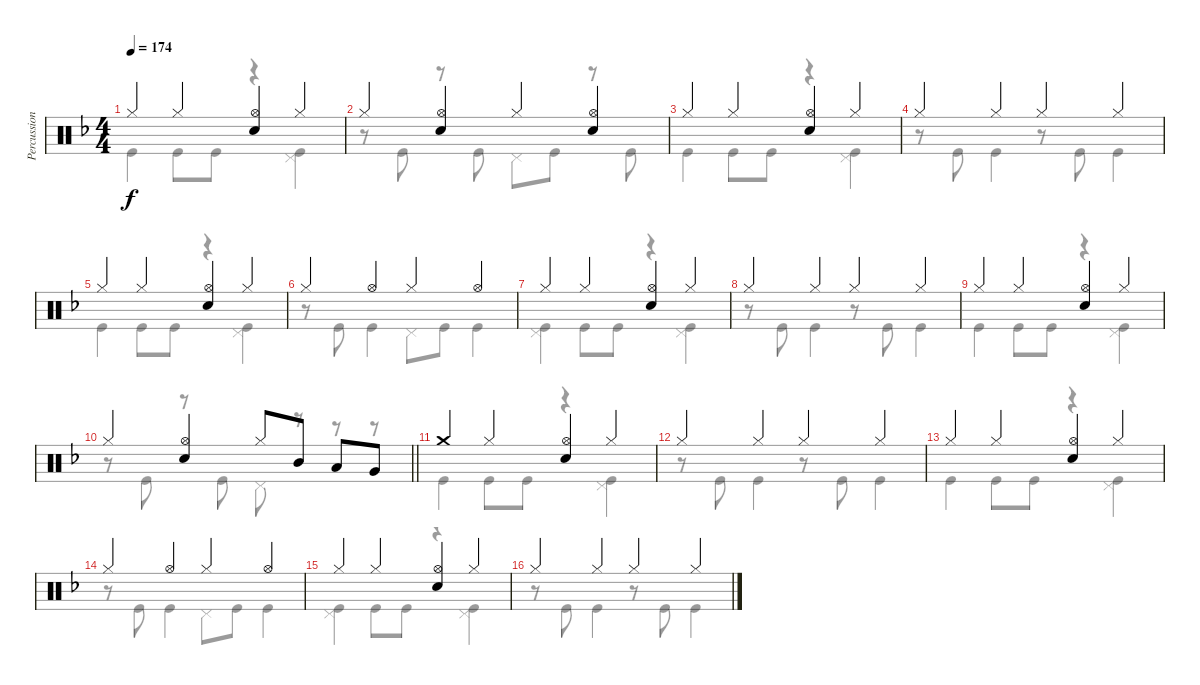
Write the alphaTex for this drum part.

\track ("Percussion" "Percussion") {instrument percussion}
\staff {score}
\articulation defaults
\voice
\ts (4 4)
\tempo 174
\clef neutral
\ks dminor "Hi-Hat (closed)".4{dy f} "Hi-Hat (closed)".4
("Hi-Hat (open)" "Electric Snare (hit)").4 "Hi-Hat (closed)".4 |
"Hi-Hat (closed)".4 ("Hi-Hat (open)" "Electric Snare (hit)").4 "Hi-Hat (closed)".4 ("Hi-Hat (open)" "Electric Snare (hit)").4 |
"Hi-Hat (closed)".4 "Hi-Hat (closed)".4 ("Hi-Hat (open)" "Electric Snare (hit)").4 "Hi-Hat (closed)".4 |
"Hi-Hat (closed)".4 "Hi-Hat (closed)".4 "Hi-Hat (closed)".4 "Hi-Hat (closed)".4 |
"Hi-Hat (closed)".4 "Hi-Hat (closed)".4 ("Hi-Hat (open)" "Electric Snare (hit)").4 "Hi-Hat (closed)".4 |
"Hi-Hat (closed)".4 "Hi-Hat (open)".4 "Hi-Hat (closed)".4 "Hi-Hat (open)".4 |
"Hi-Hat (closed)".4 "Hi-Hat (closed)".4 ("Hi-Hat (open)" "Electric Snare (hit)").4 "Hi-Hat (closed)".4 |
"Hi-Hat (closed)".4 "Hi-Hat (closed)".4 "Hi-Hat (closed)".4 "Hi-Hat (closed)".4 |
"Hi-Hat (closed)".4 "Hi-Hat (closed)".4 ("Hi-Hat (open)" "Electric Snare (hit)").4 "Hi-Hat (closed)".4 |
\barLineRight lightlight "Hi-Hat (closed)".4
("Hi-Hat (open)" "Electric Snare (hit)").4 "Hi-Hat (closed)".8 "Mid Tom (hit)".8 "Low Tom (hit)".8 "Very Low Tom (hit)".8 |
\section ("" "")
"Crash medium (hit)".4 "Hi-Hat (closed)".4 ("Hi-Hat (open)" "Electric Snare (hit)").4 "Hi-Hat (closed)".4 |
"Hi-Hat (closed)".4 "Hi-Hat (closed)".4 "Hi-Hat (closed)".4 "Hi-Hat (closed)".4 |
"Hi-Hat (closed)".4 "Hi-Hat (closed)".4 ("Hi-Hat (open)" "Electric Snare (hit)").4 "Hi-Hat (closed)".4 |
"Hi-Hat (closed)".4 "Hi-Hat (open)".4 "Hi-Hat (closed)".4 "Hi-Hat (open)".4 |
"Hi-Hat (closed)".4 "Hi-Hat (closed)".4 ("Hi-Hat (open)" "Electric Snare (hit)").4 "Hi-Hat (closed)".4 |
"Hi-Hat (closed)".4 "Hi-Hat (closed)".4 "Hi-Hat (closed)".4 "Hi-Hat (closed)".4
\voice
\clef neutral
\ottava regular
\simile none
\ks dminor "Kick (hit)".4{dy f} "Kick (hit)".8 "Kick (hit)".8
r.4 ("Pedal Hi-Hat (hit)" "Kick (hit)").4 |
r.8 "Kick (hit)".8 r.8 "Kick (hit)".8 "Pedal Hi-Hat (hit)".8 "Kick (hit)".8 r.8 "Kick (hit)".8 |
"Kick (hit)".4 "Kick (hit)".8 "Kick (hit)".8 r.4 ("Pedal Hi-Hat (hit)" "Kick (hit)").4 |
r.8 "Kick (hit)".8 "Kick (hit)".4 r.8 "Kick (hit)".8 "Kick (hit)".4 |
"Kick (hit)".4 "Kick (hit)".8 "Kick (hit)".8 r.4 ("Pedal Hi-Hat (hit)" "Kick (hit)").4 |
r.8 "Kick (hit)".8 "Kick (hit)".4 "Pedal Hi-Hat (hit)".8 "Kick (hit)".8 "Kick (hit)".4 |
("Pedal Hi-Hat (hit)" "Kick (hit)").4 "Kick (hit)".8 "Kick (hit)".8 r.4 ("Pedal Hi-Hat (hit)" "Kick (hit)").4 |
r.8 "Kick (hit)".8 "Kick (hit)".4 r.8 "Kick (hit)".8 "Kick (hit)".4 |
"Kick (hit)".4 "Kick (hit)".8 "Kick (hit)".8 r.4 ("Pedal Hi-Hat (hit)" "Kick (hit)").4 |
\barLineRight lightlight
r.8 "Kick (hit)".8 r.8 "Kick (hit)".8 "Pedal Hi-Hat (hit)".8 r.8 r.8 r.8 |
"Kick (hit)".4 "Kick (hit)".8 "Kick (hit)".8 r.4 ("Pedal Hi-Hat (hit)" "Kick (hit)").4 |
r.8 "Kick (hit)".8 "Kick (hit)".4 r.8 "Kick (hit)".8 "Kick (hit)".4 |
"Kick (hit)".4 "Kick (hit)".8 "Kick (hit)".8 r.4 ("Pedal Hi-Hat (hit)" "Kick (hit)").4 |
r.8 "Kick (hit)".8 "Kick (hit)".4 "Pedal Hi-Hat (hit)".8 "Kick (hit)".8 "Kick (hit)".4 |
("Pedal Hi-Hat (hit)" "Kick (hit)").4 "Kick (hit)".8 "Kick (hit)".8 r.4 ("Pedal Hi-Hat (hit)" "Kick (hit)").4 |
r.8 "Kick (hit)".8 "Kick (hit)".4 r.8 "Kick (hit)".8 "Kick (hit)".4
